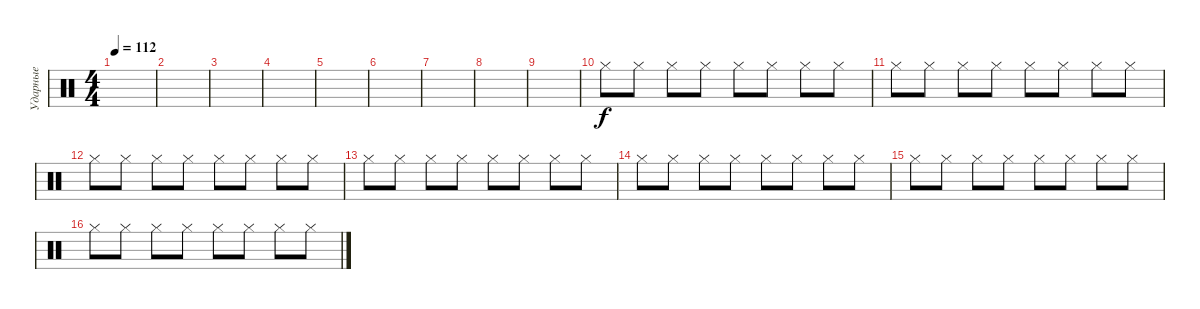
\track ("Ударные" "Ударные") {instrument percussion}
\staff {score}
\articulation defaults
\ts (4 4)
\tempo 112
\clef neutral
\ks c
|
|
|
|
|
|
|
|
|
"Hi-Hat (closed)".8 "Hi-Hat (closed)".8 "Hi-Hat (closed)".8 "Hi-Hat (closed)".8 "Hi-Hat (closed)".8 "Hi-Hat (closed)".8 "Hi-Hat (closed)".8 "Hi-Hat (closed)".8 |
"Hi-Hat (closed)".8 "Hi-Hat (closed)".8 "Hi-Hat (closed)".8 "Hi-Hat (closed)".8 "Hi-Hat (closed)".8 "Hi-Hat (closed)".8 "Hi-Hat (closed)".8 "Hi-Hat (closed)".8 |
"Hi-Hat (closed)".8 "Hi-Hat (closed)".8 "Hi-Hat (closed)".8 "Hi-Hat (closed)".8 "Hi-Hat (closed)".8 "Hi-Hat (closed)".8 "Hi-Hat (closed)".8 "Hi-Hat (closed)".8 |
"Hi-Hat (closed)".8 "Hi-Hat (closed)".8 "Hi-Hat (closed)".8 "Hi-Hat (closed)".8 "Hi-Hat (closed)".8 "Hi-Hat (closed)".8 "Hi-Hat (closed)".8 "Hi-Hat (closed)".8 |
"Hi-Hat (closed)".8 "Hi-Hat (closed)".8 "Hi-Hat (closed)".8 "Hi-Hat (closed)".8 "Hi-Hat (closed)".8 "Hi-Hat (closed)".8 "Hi-Hat (closed)".8 "Hi-Hat (closed)".8 |
"Hi-Hat (closed)".8 "Hi-Hat (closed)".8 "Hi-Hat (closed)".8 "Hi-Hat (closed)".8 "Hi-Hat (closed)".8 "Hi-Hat (closed)".8 "Hi-Hat (closed)".8 "Hi-Hat (closed)".8 |
"Hi-Hat (closed)".8 "Hi-Hat (closed)".8 "Hi-Hat (closed)".8 "Hi-Hat (closed)".8 "Hi-Hat (closed)".8 "Hi-Hat (closed)".8 "Hi-Hat (closed)".8 "Hi-Hat (closed)".8
